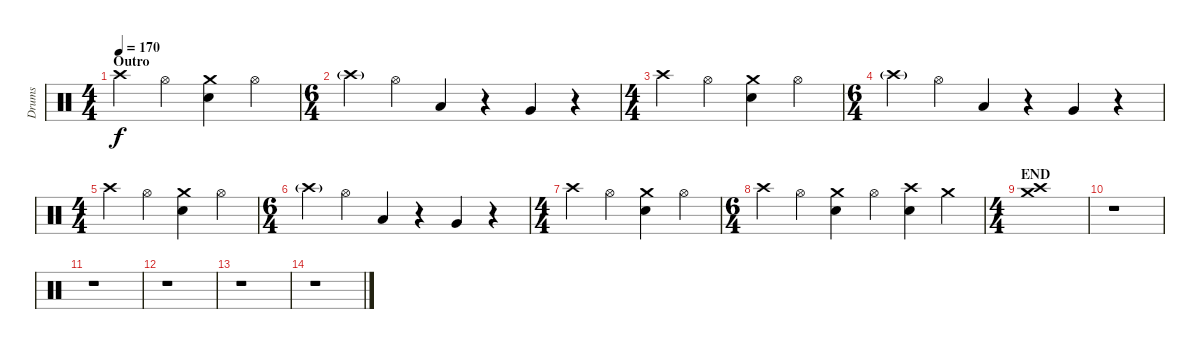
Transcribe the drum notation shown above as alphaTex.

\track ("Drums" "Drums") {instrument percussion}
\staff {score}
\articulation defaults
\ts (4 4)
\section ("" "Outro")
\tempo 170
\clef neutral
\ks c "Crash high (hit)".4{dy f} "Hi-Hat (open)".4
("Crash medium (hit)" "Electric Snare (hit)").4 "Hi-Hat (open)".4 |
\ts (6 4)
"Crash high (hit)"{g}.4 "Hi-Hat (open)".4 "Low Tom (hit)".4 r.4 "Very Low Tom (hit)".4 r.4 |
\ts (4 4)
"Crash high (hit)".4 "Hi-Hat (open)".4 ("Crash medium (hit)" "Electric Snare (hit)").4 "Hi-Hat (open)".4 |
\ts (6 4)
"Crash high (hit)"{g}.4 "Hi-Hat (open)".4 "Low Tom (hit)".4 r.4 "Very Low Tom (hit)".4 r.4 |
\ts (4 4)
"Crash high (hit)".4 "Hi-Hat (open)".4 ("Crash medium (hit)" "Electric Snare (hit)").4 "Hi-Hat (open)".4 |
\ts (6 4)
"Crash high (hit)"{g}.4 "Hi-Hat (open)".4 "Low Tom (hit)".4 r.4 "Very Low Tom (hit)".4 r.4 |
\ts (4 4)
"Crash high (hit)".4 "Hi-Hat (open)".4 ("Crash medium (hit)" "Electric Snare (hit)").4 "Hi-Hat (open)".4 |
\ts (6 4)
"Crash high (hit)".4 "Hi-Hat (open)".4 ("Crash medium (hit)" "Electric Snare (hit)").4 "Hi-Hat (open)".4 ("Crash high (hit)" "Electric Snare (hit)").4 "Crash medium (hit)".4 |
\ts (4 4)
\section ("" "END")
("Crash high (hit)" "Crash medium (hit)").1 |
r.1 |
r.1 |
r.1 |
r.1 |
r.1
